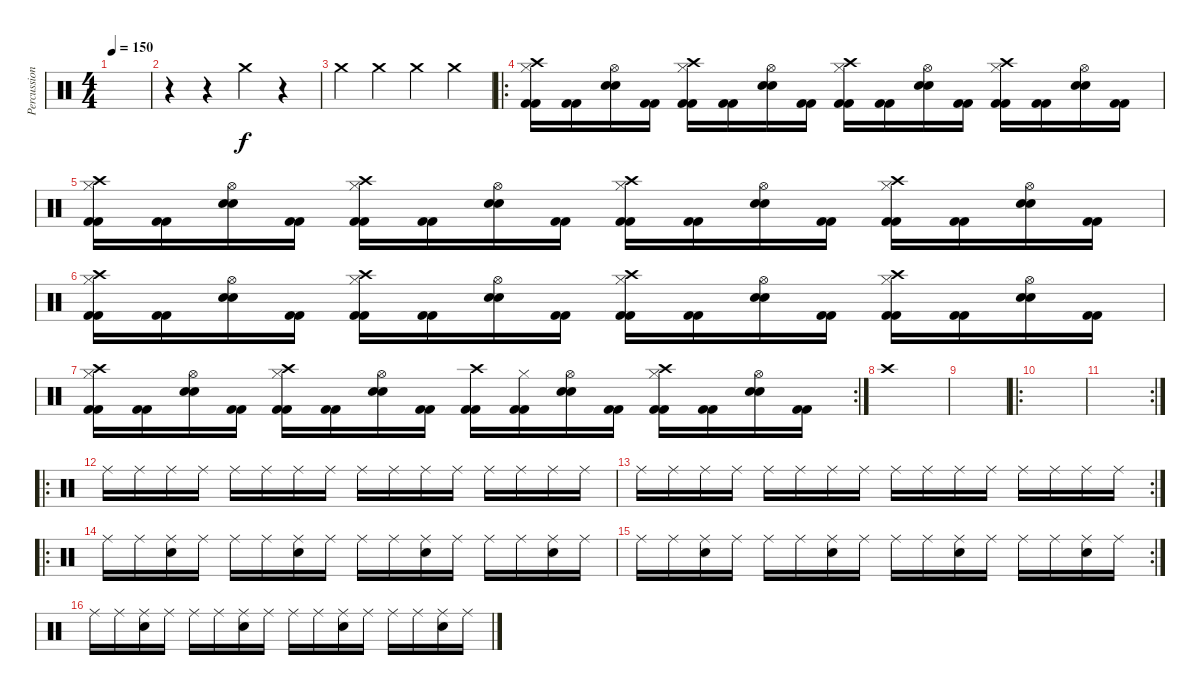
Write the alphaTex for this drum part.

\track ("Percussions" "Percussion") {instrument percussion}
\staff {score}
\articulation defaults
\ts (4 4)
\tempo 150
\clef neutral
\ks c
|
r.4 r.4 "Crash medium (hit)".4 r.4 |
"Crash medium (hit)".4 "Crash medium (hit)".4 "Crash medium (hit)".4 "Crash medium (hit)".4 |
\ro
("Crash high (hit)" "Hi-Hat (closed)" "Kick (hit) 2" "Kick (hit) 2").16 ("Kick (hit) 2" "Kick (hit) 2").16 ("Hi-Hat (open)" "Snare (hit) 2" "Snare (hit) 2").16 ("Kick (hit) 2" "Kick (hit) 2").16 ("Crash high (hit)" "Hi-Hat (closed)" "Kick (hit) 2" "Kick (hit) 2").16 ("Kick (hit) 2" "Kick (hit) 2").16 ("Hi-Hat (open)" "Snare (hit) 2" "Snare (hit) 2").16 ("Kick (hit) 2" "Kick (hit) 2").16 ("Crash high (hit)" "Hi-Hat (closed)" "Kick (hit) 2" "Kick (hit) 2").16 ("Kick (hit) 2" "Kick (hit) 2").16 ("Hi-Hat (open)" "Snare (hit) 2" "Snare (hit) 2").16 ("Kick (hit) 2" "Kick (hit) 2").16 ("Crash high (hit)" "Hi-Hat (closed)" "Kick (hit) 2" "Kick (hit) 2").16 ("Kick (hit) 2" "Kick (hit) 2").16 ("Hi-Hat (open)" "Snare (hit) 2" "Snare (hit) 2").16 ("Kick (hit) 2" "Kick (hit) 2").16 |
("Crash high (hit)" "Hi-Hat (closed)" "Kick (hit) 2" "Kick (hit) 2").16 ("Kick (hit) 2" "Kick (hit) 2").16 ("Hi-Hat (open)" "Snare (hit) 2" "Snare (hit) 2").16 ("Kick (hit) 2" "Kick (hit) 2").16 ("Crash high (hit)" "Hi-Hat (closed)" "Kick (hit) 2" "Kick (hit) 2").16 ("Kick (hit) 2" "Kick (hit) 2").16 ("Hi-Hat (open)" "Snare (hit) 2" "Snare (hit) 2").16 ("Kick (hit) 2" "Kick (hit) 2").16 ("Crash high (hit)" "Hi-Hat (closed)" "Kick (hit) 2" "Kick (hit) 2").16 ("Kick (hit) 2" "Kick (hit) 2").16 ("Hi-Hat (open)" "Snare (hit) 2" "Snare (hit) 2").16 ("Kick (hit) 2" "Kick (hit) 2").16 ("Crash high (hit)" "Hi-Hat (closed)" "Kick (hit) 2" "Kick (hit) 2").16 ("Kick (hit) 2" "Kick (hit) 2").16 ("Hi-Hat (open)" "Snare (hit) 2" "Snare (hit) 2").16 ("Kick (hit) 2" "Kick (hit) 2").16 |
("Crash high (hit)" "Hi-Hat (closed)" "Kick (hit) 2" "Kick (hit) 2").16 ("Kick (hit) 2" "Kick (hit) 2").16 ("Hi-Hat (open)" "Snare (hit) 2" "Snare (hit) 2").16 ("Kick (hit) 2" "Kick (hit) 2").16 ("Crash high (hit)" "Hi-Hat (closed)" "Kick (hit) 2" "Kick (hit) 2").16 ("Kick (hit) 2" "Kick (hit) 2").16 ("Hi-Hat (open)" "Snare (hit) 2" "Snare (hit) 2").16 ("Kick (hit) 2" "Kick (hit) 2").16 ("Crash high (hit)" "Hi-Hat (closed)" "Kick (hit) 2" "Kick (hit) 2").16 ("Kick (hit) 2" "Kick (hit) 2").16 ("Hi-Hat (open)" "Snare (hit) 2" "Snare (hit) 2").16 ("Kick (hit) 2" "Kick (hit) 2").16 ("Crash high (hit)" "Hi-Hat (closed)" "Kick (hit) 2" "Kick (hit) 2").16 ("Kick (hit) 2" "Kick (hit) 2").16 ("Hi-Hat (open)" "Snare (hit) 2" "Snare (hit) 2").16 ("Kick (hit) 2" "Kick (hit) 2").16 |
\rc 2
("Crash high (hit)" "Hi-Hat (closed)" "Kick (hit) 2" "Kick (hit) 2").16 ("Kick (hit) 2" "Kick (hit) 2").16 ("Hi-Hat (open)" "Snare (hit) 2" "Snare (hit) 2").16 ("Kick (hit) 2" "Kick (hit) 2").16 ("Crash high (hit)" "Hi-Hat (closed)" "Kick (hit) 2" "Kick (hit) 2").16 ("Kick (hit) 2" "Kick (hit) 2").16 ("Hi-Hat (open)" "Snare (hit) 2" "Snare (hit) 2").16 ("Kick (hit) 2" "Kick (hit) 2").16 ("Crash high (hit)" "Kick (hit) 2" "Kick (hit) 2").16 ("Hi-Hat (closed)" "Kick (hit) 2" "Kick (hit) 2").16 ("Hi-Hat (open)" "Snare (hit) 2" "Snare (hit) 2").16 ("Kick (hit) 2" "Kick (hit) 2").16 ("Crash high (hit)" "Hi-Hat (closed)" "Kick (hit) 2" "Kick (hit) 2").16 ("Kick (hit) 2" "Kick (hit) 2").16 ("Hi-Hat (open)" "Snare (hit) 2" "Snare (hit) 2").16 ("Kick (hit) 2" "Kick (hit) 2").16 |
"Crash high (hit)".1 |
|
\ro
|
\rc 2
|
\ro "Ride (middle)".16 "Ride (middle)".16 "Ride (middle)".16 "Ride (middle)".16 "Ride (middle)".16 "Ride (middle)".16 "Ride (middle)".16 "Ride (middle)".16 "Ride (middle)".16 "Ride (middle)".16 "Ride (middle)".16 "Ride (middle)".16 "Ride (middle)".16 "Ride (middle)".16 "Ride (middle)".16 "Ride (middle)".16
|
\rc 2 "Ride (middle)".16 "Ride (middle)".16 "Ride (middle)".16 "Ride (middle)".16 "Ride (middle)".16 "Ride (middle)".16 "Ride (middle)".16 "Ride (middle)".16 "Ride (middle)".16 "Ride (middle)".16 "Ride (middle)".16 "Ride (middle)".16 "Ride (middle)".16 "Ride (middle)".16 "Ride (middle)".16 "Ride (middle)".16
|
\ro "Ride (middle)".16 "Ride (middle)".16
("Snare (hit) 2" "Ride (middle)").16 "Ride (middle)".16 "Ride (middle)".16 "Ride (middle)".16 ("Snare (hit) 2" "Ride (middle)").16 "Ride (middle)".16 "Ride (middle)".16 "Ride (middle)".16 ("Snare (hit) 2" "Ride (middle)").16 "Ride (middle)".16 "Ride (middle)".16 "Ride (middle)".16 ("Snare (hit) 2" "Ride (middle)").16 "Ride (middle)".16 |
\rc 2 "Ride (middle)".16 "Ride (middle)".16
("Snare (hit) 2" "Ride (middle)").16 "Ride (middle)".16 "Ride (middle)".16 "Ride (middle)".16 ("Snare (hit) 2" "Ride (middle)").16 "Ride (middle)".16 "Ride (middle)".16 "Ride (middle)".16 ("Snare (hit) 2" "Ride (middle)").16 "Ride (middle)".16 "Ride (middle)".16 "Ride (middle)".16 ("Snare (hit) 2" "Ride (middle)").16 "Ride (middle)".16 |
"Ride (middle)".16 "Ride (middle)".16 ("Snare (hit) 2" "Ride (middle)").16 "Ride (middle)".16 "Ride (middle)".16 "Ride (middle)".16 ("Snare (hit) 2" "Ride (middle)").16 "Ride (middle)".16 "Ride (middle)".16 "Ride (middle)".16 ("Snare (hit) 2" "Ride (middle)").16 "Ride (middle)".16 "Ride (middle)".16 "Ride (middle)".16 ("Snare (hit) 2" "Ride (middle)").16 "Ride (middle)".16
